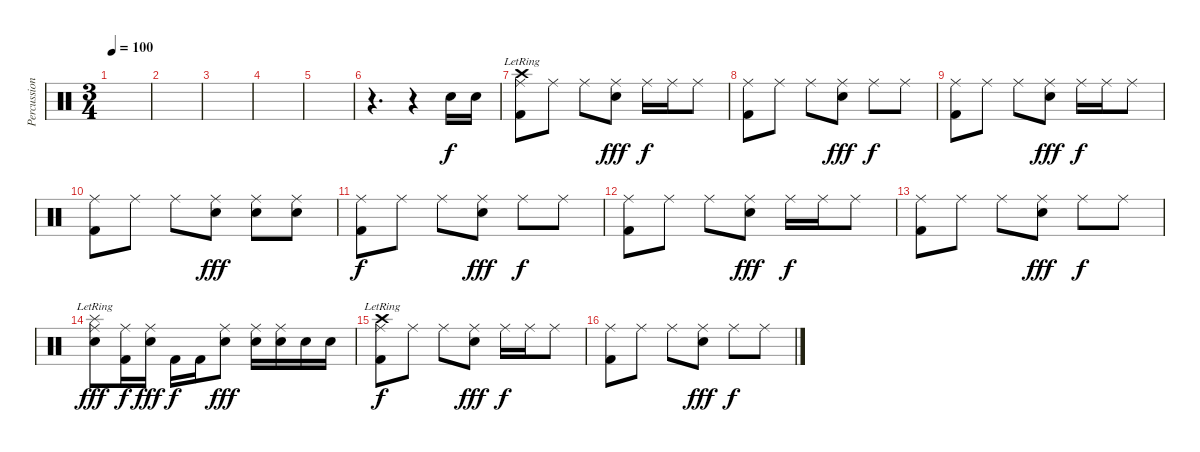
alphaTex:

\track ("Percussions" "Percussion") {instrument percussion}
\staff {score}
\articulation defaults
\ts (3 4)
\tempo 100
\clef neutral
\ks c
|
|
|
|
|
r.4{d} r.4 "Snare (hit) 2".16 "Snare (hit) 2".16 |
("Ride (middle)" "Crash high (hit)"{lr} "Kick (hit) 2").8 "Ride (middle)".8 "Ride (middle)".8 ("Ride (middle)" "Snare (hit) 2").8{dy fff} "Ride (middle)".16{dy f} "Ride (middle)".16 "Ride (middle)".8 |
("Ride (middle)" "Kick (hit) 2").8 "Ride (middle)".8 "Ride (middle)".8 ("Ride (middle)" "Snare (hit) 2").8{dy fff} "Ride (middle)".8{dy f} "Ride (middle)".8 |
("Ride (middle)" "Kick (hit) 2").8 "Ride (middle)".8 "Ride (middle)".8 ("Ride (middle)" "Snare (hit) 2").8{dy fff} "Ride (middle)".16{dy f} "Ride (middle)".16 "Ride (middle)".8 |
("Ride (middle)" "Kick (hit) 2").8 "Ride (middle)".8 "Ride (middle)".8 ("Ride (middle)" "Snare (hit) 2").8{dy fff} ("Ride (middle)" "Snare (hit) 2").8 ("Ride (middle)" "Snare (hit) 2").8 |
("Ride (middle)" "Kick (hit) 2").8{dy f} "Ride (middle)".8 "Ride (middle)".8 ("Ride (middle)" "Snare (hit) 2").8{dy fff} "Ride (middle)".8{dy f} "Ride (middle)".8 |
("Ride (middle)" "Kick (hit) 2").8 "Ride (middle)".8 "Ride (middle)".8 ("Ride (middle)" "Snare (hit) 2").8{dy fff} "Ride (middle)".16{dy f} "Ride (middle)".16 "Ride (middle)".8 |
("Ride (middle)" "Kick (hit) 2").8 "Ride (middle)".8 "Ride (middle)".8 ("Ride (middle)" "Snare (hit) 2").8{dy fff} "Ride (middle)".8{dy f} "Ride (middle)".8 |
("Ride (middle)" "Splash (hit)"{lr} "Snare (hit) 2").8{dy fff} ("Ride (middle)" "Kick (hit) 2").16{dy f} ("Ride (middle)" "Snare (hit) 2").16{dy fff} "Kick (hit) 2".16{dy f} "Kick (hit) 2".16 ("Ride (middle)" "Snare (hit) 2").8{dy fff} ("Ride (middle)" "Snare (hit) 2").16 ("Ride (middle)" "Snare (hit) 2").16 "Snare (hit) 2".16 "Snare (hit) 2".16 |
("Ride (middle)" "Crash high (hit)"{lr} "Kick (hit) 2").8{dy f} "Ride (middle)".8 "Ride (middle)".8 ("Ride (middle)" "Snare (hit) 2").8{dy fff} "Ride (middle)".16{dy f} "Ride (middle)".16 "Ride (middle)".8 |
("Ride (middle)" "Kick (hit) 2").8 "Ride (middle)".8 "Ride (middle)".8 ("Ride (middle)" "Snare (hit) 2").8{dy fff} "Ride (middle)".8{dy f} "Ride (middle)".8
